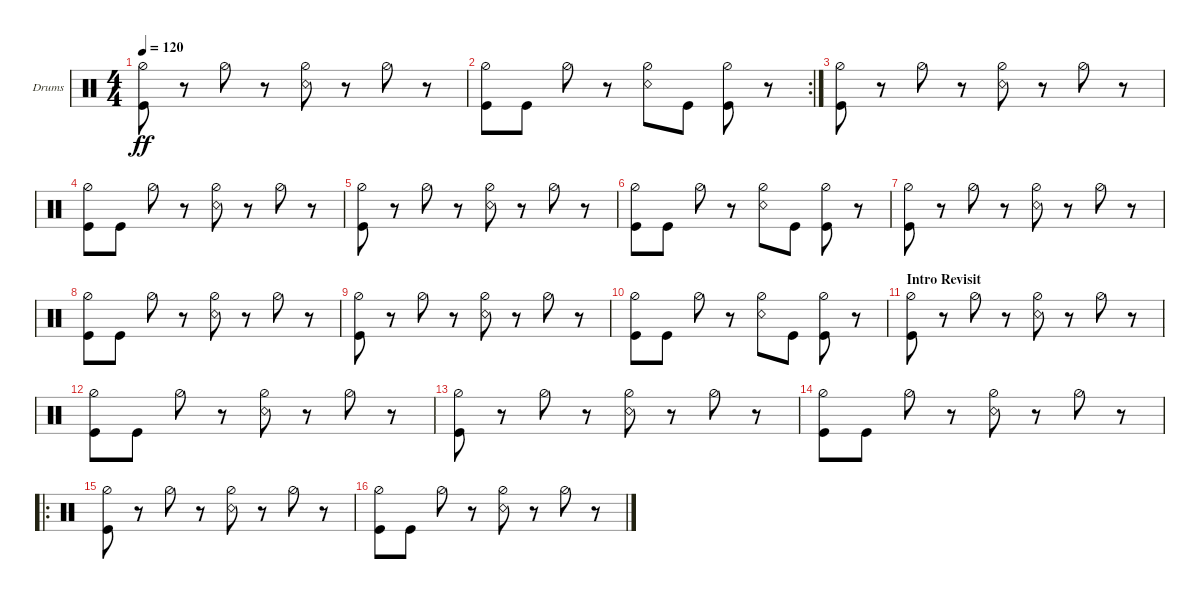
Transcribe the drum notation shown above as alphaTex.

\bracketExtendMode groupsimilarinstruments
\firstSystemTrackNameOrientation horizontal
\otherSystemsTrackNameOrientation horizontal
\track ("Drumkit" "Drums") {instrument percussion}
\staff {score}
\articulation defaults
\ts (4 4)
\tempo 120
\clef neutral
\ks c
("Hi-Hat (half)" "Kick (hit)").8{dy ff} r.8 "Hi-Hat (half)".8 r.8 ("Hi-Hat (half)" "Snare (rim shot)").8 r.8 "Hi-Hat (half)".8 r.8 |
\rc 2
("Hi-Hat (half)" "Kick (hit)").8 "Kick (hit)".8 "Hi-Hat (half)".8 r.8 ("Hi-Hat (half)" "Snare (rim shot)").8 "Kick (hit)".8 ("Hi-Hat (half)" "Kick (hit)").8 r.8 |
("Hi-Hat (half)" "Kick (hit)").8 r.8 "Hi-Hat (half)".8 r.8 ("Hi-Hat (half)" "Snare (rim shot)").8 r.8 "Hi-Hat (half)".8 r.8 |
("Hi-Hat (half)" "Kick (hit)").8 "Kick (hit)".8 "Hi-Hat (half)".8 r.8 ("Hi-Hat (half)" "Snare (rim shot)").8 r.8 "Hi-Hat (half)".8 r.8 |
("Hi-Hat (half)" "Kick (hit)").8 r.8 "Hi-Hat (half)".8 r.8 ("Hi-Hat (half)" "Snare (rim shot)").8 r.8 "Hi-Hat (half)".8 r.8 |
("Hi-Hat (half)" "Kick (hit)").8 "Kick (hit)".8 "Hi-Hat (half)".8 r.8 ("Hi-Hat (half)" "Snare (rim shot)").8 "Kick (hit)".8 ("Hi-Hat (half)" "Kick (hit)").8 r.8 |
("Hi-Hat (half)" "Kick (hit)").8 r.8 "Hi-Hat (half)".8 r.8 ("Hi-Hat (half)" "Snare (rim shot)").8 r.8 "Hi-Hat (half)".8 r.8 |
("Hi-Hat (half)" "Kick (hit)").8 "Kick (hit)".8 "Hi-Hat (half)".8 r.8 ("Hi-Hat (half)" "Snare (rim shot)").8 r.8 "Hi-Hat (half)".8 r.8 |
("Hi-Hat (half)" "Kick (hit)").8 r.8 "Hi-Hat (half)".8 r.8 ("Hi-Hat (half)" "Snare (rim shot)").8 r.8 "Hi-Hat (half)".8 r.8 |
("Hi-Hat (half)" "Kick (hit)").8 "Kick (hit)".8 "Hi-Hat (half)".8 r.8 ("Hi-Hat (half)" "Snare (rim shot)").8 "Kick (hit)".8 ("Hi-Hat (half)" "Kick (hit)").8 r.8 |
\section ("" "Intro Revisit")
("Hi-Hat (half)" "Kick (hit)").8 r.8 "Hi-Hat (half)".8 r.8 ("Hi-Hat (half)" "Snare (rim shot)").8 r.8 "Hi-Hat (half)".8 r.8 |
("Hi-Hat (half)" "Kick (hit)").8 "Kick (hit)".8 "Hi-Hat (half)".8 r.8 ("Hi-Hat (half)" "Snare (rim shot)").8 r.8 "Hi-Hat (half)".8 r.8 |
("Hi-Hat (half)" "Kick (hit)").8 r.8 "Hi-Hat (half)".8 r.8 ("Hi-Hat (half)" "Snare (rim shot)").8 r.8 "Hi-Hat (half)".8 r.8 |
("Hi-Hat (half)" "Kick (hit)").8 "Kick (hit)".8 "Hi-Hat (half)".8 r.8 ("Hi-Hat (half)" "Snare (rim shot)").8 r.8 "Hi-Hat (half)".8 r.8 |
\ro
("Hi-Hat (half)" "Kick (hit)").8 r.8 "Hi-Hat (half)".8 r.8 ("Hi-Hat (half)" "Snare (rim shot)").8 r.8 "Hi-Hat (half)".8 r.8 |
("Hi-Hat (half)" "Kick (hit)").8 "Kick (hit)".8 "Hi-Hat (half)".8 r.8 ("Hi-Hat (half)" "Snare (rim shot)").8 r.8 "Hi-Hat (half)".8 r.8
